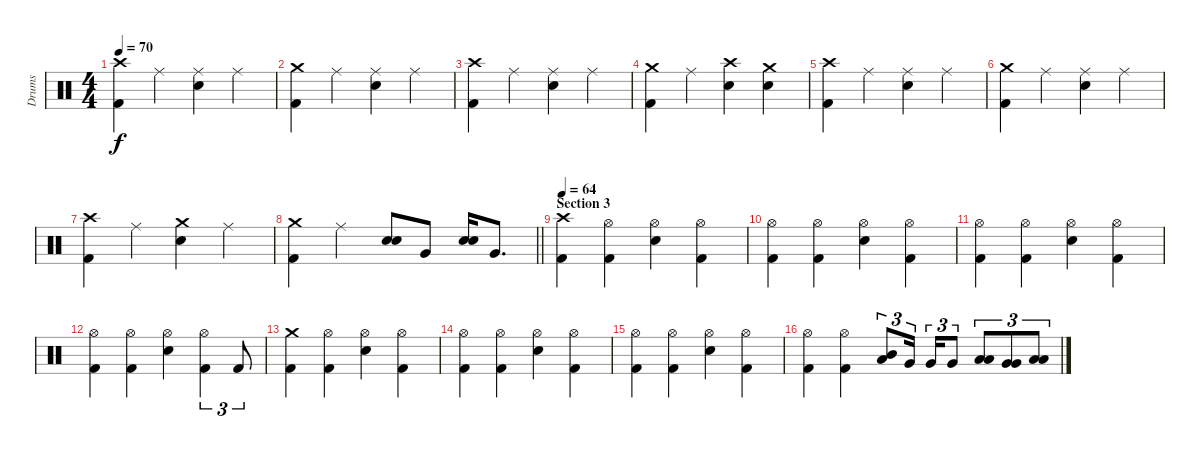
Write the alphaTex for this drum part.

\track ("Drums" "Drums") {instrument percussion}
\staff {score}
\articulation defaults
\ts (4 4)
\tempo 70
\clef neutral
\ks c
("Crash high (hit)" "Kick (hit) 2").4{dy f} "Ride (middle)".4 ("Ride (middle)" "Electric Snare (hit)").4 "Ride (middle)".4 |
("Crash medium (hit)" "Kick (hit) 2").4 "Ride (middle)".4 ("Ride (middle)" "Electric Snare (hit)").4 "Ride (middle)".4 |
("Crash high (hit)" "Kick (hit) 2").4 "Ride (middle)".4 ("Ride (middle)" "Electric Snare (hit)").4 "Ride (middle)".4 |
("Crash medium (hit)" "Kick (hit) 2").4 "Ride (middle)".4 ("Crash high (hit)" "Electric Snare (hit)").4 ("Crash medium (hit)" "Electric Snare (hit)").4 |
("Crash high (hit)" "Kick (hit) 2").4 "Ride (middle)".4 ("Ride (middle)" "Electric Snare (hit)").4 "Ride (middle)".4 |
("Crash medium (hit)" "Kick (hit) 2").4 "Ride (middle)".4 ("Ride (middle)" "Electric Snare (hit)").4 "Ride (middle)".4 |
("Crash high (hit)" "Kick (hit) 2").4 "Ride (middle)".4 ("Crash medium (hit)" "Electric Snare (hit)").4 "Ride (middle)".4 |
\barLineRight lightlight
("Crash medium (hit)" "Kick (hit) 2").4 "Ride (middle)".4 ("Electric Snare (hit)" "Electric Snare (hit)").8{bu 60} "Very Low Tom (hit)".8 ("Electric Snare (hit)" "Electric Snare (hit)").16{bu 60} "Very Low Tom (hit)".8{d} |
\section ("" "Section 3")
\tempo 64
("Crash high (hit)" "Kick (hit) 2").4 ("Hi-Hat (open)" "Kick (hit) 2").4 ("Hi-Hat (open)" "Electric Snare (hit)").4 ("Hi-Hat (open)" "Kick (hit) 2").4 |
("Hi-Hat (open)" "Kick (hit) 2").4 ("Hi-Hat (open)" "Kick (hit) 2").4 ("Hi-Hat (open)" "Electric Snare (hit)").4 ("Hi-Hat (open)" "Kick (hit) 2").4 |
("Hi-Hat (open)" "Kick (hit) 2").4 ("Hi-Hat (open)" "Kick (hit) 2").4 ("Hi-Hat (open)" "Electric Snare (hit)").4 ("Hi-Hat (open)" "Kick (hit) 2").4 |
("Hi-Hat (open)" "Kick (hit) 2").4 ("Hi-Hat (open)" "Kick (hit) 2").4 ("Hi-Hat (open)" "Electric Snare (hit)").4 ("Hi-Hat (open)" "Kick (hit) 2").4{tu (3 2)} "Kick (hit) 2".8{tu (3 2)} |
("Crash medium (hit)" "Kick (hit) 2").4 ("Hi-Hat (open)" "Kick (hit) 2").4 ("Hi-Hat (open)" "Electric Snare (hit)").4 ("Hi-Hat (open)" "Kick (hit) 2").4 |
("Hi-Hat (open)" "Kick (hit) 2").4 ("Hi-Hat (open)" "Kick (hit) 2").4 ("Hi-Hat (open)" "Electric Snare (hit)").4 ("Hi-Hat (open)" "Kick (hit) 2").4 |
("Hi-Hat (open)" "Kick (hit) 2").4 ("Hi-Hat (open)" "Kick (hit) 2").4 ("Hi-Hat (open)" "Electric Snare (hit)").4 ("Hi-Hat (open)" "Kick (hit) 2").4 |
("Hi-Hat (open)" "Kick (hit) 2").4 ("Hi-Hat (open)" "Kick (hit) 2").4 ("Mid Tom (hit)" "Low Tom (hit)").8{tu (3 2)} "Very Low Tom (hit)".16{tu (3 2) beam splitsecondary} "Very Low Tom (hit)".16{tu (3 2)} "Very Low Tom (hit)".8{tu (3 2)} ("Low Tom (hit)" "Low Tom (hit)").8{tu (3 2)} ("Very Low Tom (hit)" "Very Low Tom (hit)").8{tu (3 2)} ("Low Floor Tom (hit)" "Low Floor Tom (hit)").8{tu (3 2)}
